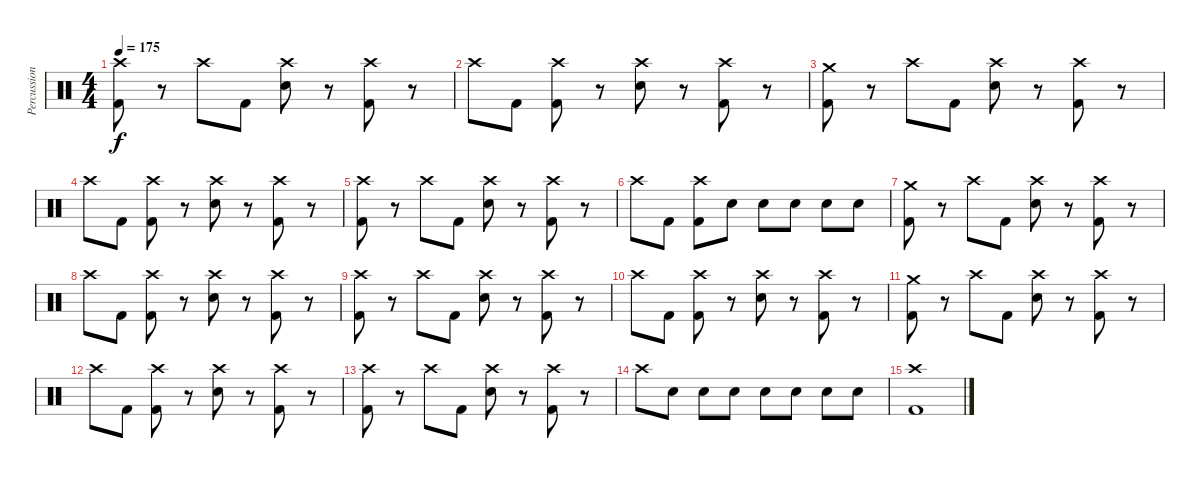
\track ("Percussion" "Percussion") {instrument percussion}
\staff {score}
\articulation defaults
\ts (4 4)
\tempo 175
\clef neutral
\ks c
("Crash high (hit)" "Kick (hit) 2").8{dy f} r.8 "Crash high (hit)".8 "Kick (hit) 2".8 ("Crash high (hit)" "Snare (hit) 2").8 r.8 ("Crash high (hit)" "Kick (hit) 2").8 r.8 |
"Crash high (hit)".8 "Kick (hit) 2".8 ("Crash high (hit)" "Kick (hit) 2").8 r.8 ("Crash high (hit)" "Snare (hit) 2").8 r.8 ("Crash high (hit)" "Kick (hit) 2").8 r.8 |
("Crash medium (hit)" "Kick (hit) 2").8 r.8 "Crash high (hit)".8 "Kick (hit) 2".8 ("Crash high (hit)" "Snare (hit) 2").8 r.8 ("Crash high (hit)" "Kick (hit) 2").8 r.8 |
"Crash high (hit)".8 "Kick (hit) 2".8 ("Crash high (hit)" "Kick (hit) 2").8 r.8 ("Crash high (hit)" "Snare (hit) 2").8 r.8 ("Crash high (hit)" "Kick (hit) 2").8 r.8 |
("Crash high (hit)" "Kick (hit) 2").8 r.8 "Crash high (hit)".8 "Kick (hit) 2".8 ("Crash high (hit)" "Snare (hit) 2").8 r.8 ("Crash high (hit)" "Kick (hit) 2").8 r.8 |
"Crash high (hit)".8 "Kick (hit) 2".8 ("Crash high (hit)" "Kick (hit) 2").8 "Snare (hit) 2".8 "Snare (hit) 2".8 "Snare (hit) 2".8 "Snare (hit) 2".8 "Snare (hit) 2".8 |
("Crash medium (hit)" "Kick (hit) 2").8 r.8 "Crash high (hit)".8 "Kick (hit) 2".8 ("Crash high (hit)" "Snare (hit) 2").8 r.8 ("Crash high (hit)" "Kick (hit) 2").8 r.8 |
"Crash high (hit)".8 "Kick (hit) 2".8 ("Crash high (hit)" "Kick (hit) 2").8 r.8 ("Crash high (hit)" "Snare (hit) 2").8 r.8 ("Crash high (hit)" "Kick (hit) 2").8 r.8 |
("Crash high (hit)" "Kick (hit) 2").8 r.8 "Crash high (hit)".8 "Kick (hit) 2".8 ("Crash high (hit)" "Snare (hit) 2").8 r.8 ("Crash high (hit)" "Kick (hit) 2").8 r.8 |
"Crash high (hit)".8 "Kick (hit) 2".8 ("Crash high (hit)" "Kick (hit) 2").8 r.8 ("Crash high (hit)" "Snare (hit) 2").8 r.8 ("Crash high (hit)" "Kick (hit) 2").8 r.8 |
("Crash medium (hit)" "Kick (hit) 2").8 r.8 "Crash high (hit)".8 "Kick (hit) 2".8 ("Crash high (hit)" "Snare (hit) 2").8 r.8 ("Crash high (hit)" "Kick (hit) 2").8 r.8 |
"Crash high (hit)".8 "Kick (hit) 2".8 ("Crash high (hit)" "Kick (hit) 2").8 r.8 ("Crash high (hit)" "Snare (hit) 2").8 r.8 ("Crash high (hit)" "Kick (hit) 2").8 r.8 |
("Crash high (hit)" "Kick (hit) 2").8 r.8 "Crash high (hit)".8 "Kick (hit) 2".8 ("Crash high (hit)" "Snare (hit) 2").8 r.8 ("Crash high (hit)" "Kick (hit) 2").8 r.8 |
"Crash high (hit)".8 "Snare (hit) 2".8 "Snare (hit) 2".8 "Snare (hit) 2".8 "Snare (hit) 2".8 "Snare (hit) 2".8 "Snare (hit) 2".8 "Snare (hit) 2".8 |
("Crash high (hit)" "Kick (hit) 2").1
